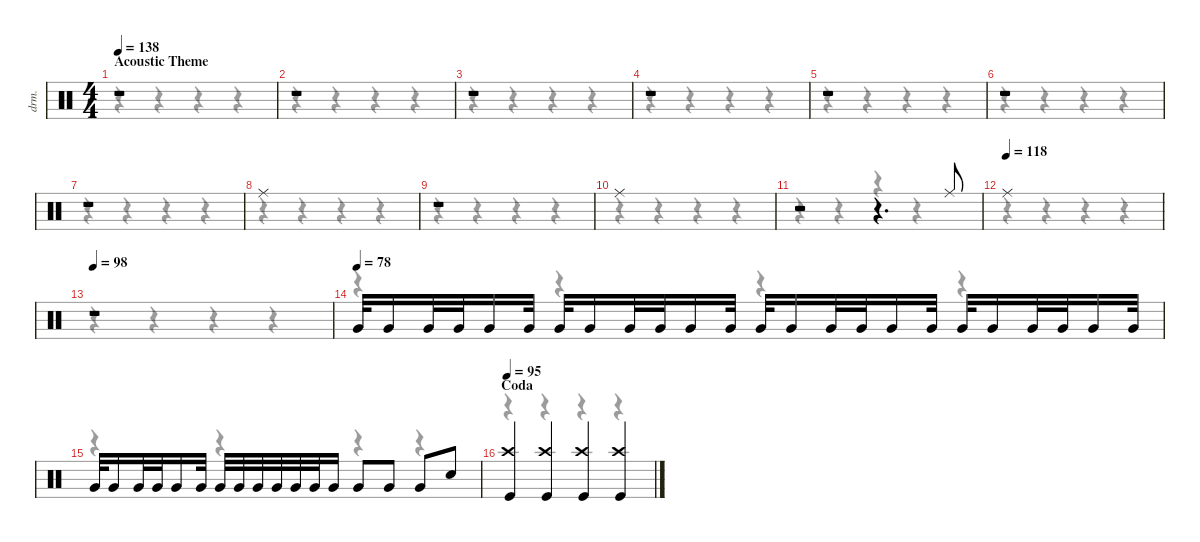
\defaultSystemsLayout 4
\hideDynamics
\bracketExtendMode nobrackets
\track ("Drumkit" "drm.") {instrument percussion}
\staff {score}
\articulation defaults
\voice
\ts (4 4)
\section ("" "Acoustic Theme")
\tempo 138
\clef neutral
\ks c
r.1{dy f} |
r.1 |
r.1 |
r.1 |
r.1 |
r.1 |
r.1 |
"Ride (middle)".1 |
r.1 |
"Ride (middle)".1 |
r.2 r.4{d} "Ride (middle)".8 |
\tempo (118)
"Ride (middle)".1 |
\tempo 98
r.1 |
\tempo (78)
"Very Low Tom (hit)".32{dy mf} "Very Low Tom (hit)".16 "Very Low Tom (hit)".32 "Very Low Tom (hit)".32 "Very Low Tom (hit)".16 "Very Low Tom (hit)".32 "Very Low Tom (hit)".32 "Very Low Tom (hit)".16 "Very Low Tom (hit)".32 "Very Low Tom (hit)".32 "Very Low Tom (hit)".16 "Very Low Tom (hit)".32 "Very Low Tom (hit)".32 "Very Low Tom (hit)".16 "Very Low Tom (hit)".32{dy mp} "Very Low Tom (hit)".32 "Very Low Tom (hit)".16 "Very Low Tom (hit)".32 "Very Low Tom (hit)".32 "Very Low Tom (hit)".16 "Very Low Tom (hit)".32{dy mf} "Very Low Tom (hit)".32 "Very Low Tom (hit)".16 "Very Low Tom (hit)".32 |
"Very Low Tom (hit)".32 "Very Low Tom (hit)".16 "Very Low Tom (hit)".32{dy f} "Very Low Tom (hit)".32 "Very Low Tom (hit)".16 "Very Low Tom (hit)".32 "Very Low Tom (hit)".32 "Very Low Tom (hit)".32 "Very Low Tom (hit)".32 "Very Low Tom (hit)".32 "Very Low Tom (hit)".32 "Very Low Tom (hit)".32 "Very Low Tom (hit)".16 "Very Low Tom (hit)".8{dy ff} "Very Low Tom (hit)".8 "Very Low Tom (hit)".8 "Snare (hit) 2".8 |
\section ("" "Coda")
\tempo 95
("Crash high (hit)" "Kick (hit)").4{dy f} ("Crash high (hit)" "Kick (hit)").4 ("Crash high (hit)" "Kick (hit)").4 ("Crash high (hit)" "Kick (hit)").4
\voice
\clef neutral
\ottava regular
\simile none
\ks c
r.4{dy mf} r.4 r.4 r.4 |
r.4 r.4 r.4 r.4 |
r.4 r.4 r.4 r.4 |
r.4 r.4 r.4 r.4 |
r.4 r.4 r.4 r.4 |
r.4 r.4 r.4 r.4 |
r.4 r.4 r.4 r.4 |
r.4 r.4 r.4 r.4 |
r.4 r.4 r.4 r.4 |
r.4 r.4 r.4 r.4 |
r.4 r.4 r.4 r.4 |
r.4 r.4 r.4 r.4 |
r.4 r.4 r.4 r.4 |
r.4 r.4 r.4 r.4 |
r.4 r.4 r.4 r.4 |
r.4 r.4 r.4 r.4
